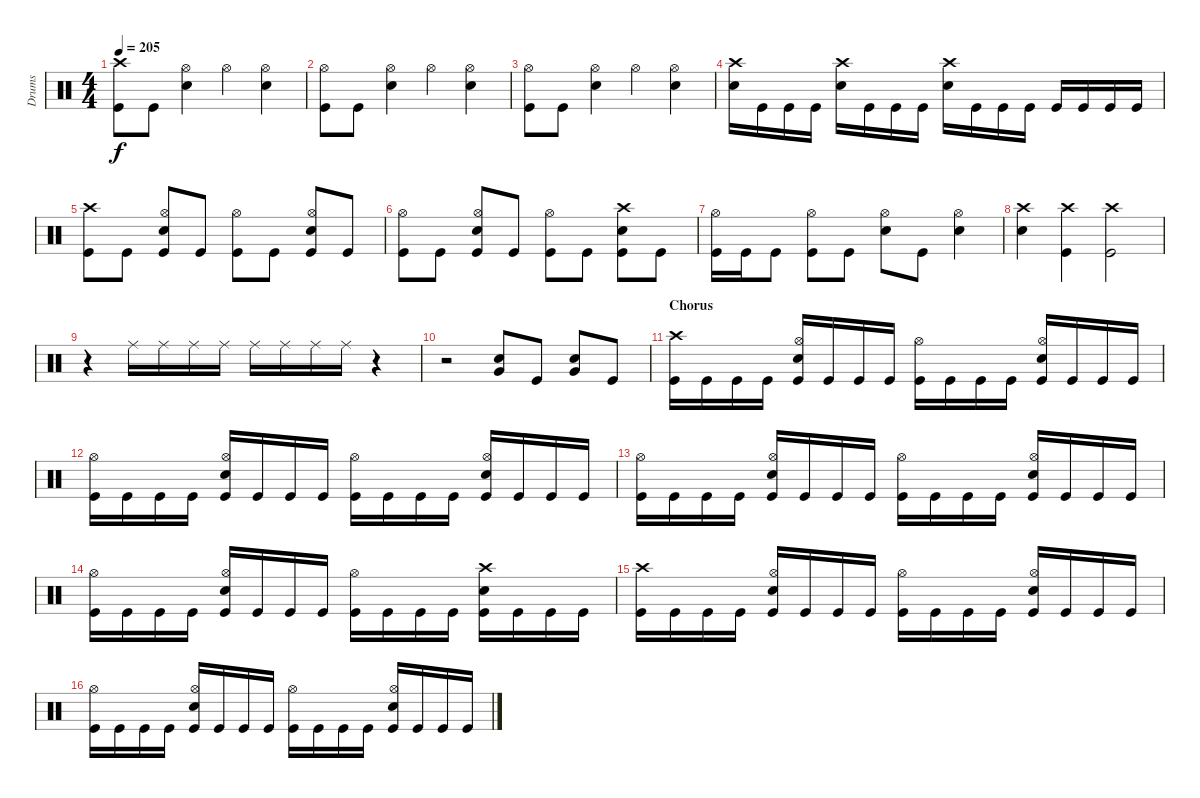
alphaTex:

\track ("Drums" "Drums") {instrument percussion}
\staff {score}
\articulation defaults
\ts (4 4)
\tempo 205
\clef neutral
\ks c
("Crash high (hit)" "Kick (hit)").8{dy f} "Kick (hit)".8 ("Hi-Hat (open)" "Snare (hit) 2").4 "Hi-Hat (open)".4 ("Hi-Hat (open)" "Snare (hit) 2").4 |
("Hi-Hat (open)" "Kick (hit)").8 "Kick (hit)".8 ("Hi-Hat (open)" "Snare (hit) 2").4 "Hi-Hat (open)".4 ("Hi-Hat (open)" "Snare (hit) 2").4 |
("Hi-Hat (open)" "Kick (hit)").8 "Kick (hit)".8 ("Hi-Hat (open)" "Snare (hit) 2").4 "Hi-Hat (open)".4 ("Hi-Hat (open)" "Snare (hit) 2").4 |
("Crash high (hit)" "Snare (hit) 2").16 "Kick (hit)".16 "Kick (hit)".16 "Kick (hit)".16 ("Crash high (hit)" "Snare (hit) 2").16 "Kick (hit)".16 "Kick (hit)".16 "Kick (hit)".16 ("Crash high (hit)" "Snare (hit) 2").16 "Kick (hit)".16 "Kick (hit)".16 "Kick (hit)".16 "Kick (hit)".16 "Kick (hit)".16 "Kick (hit)".16 "Kick (hit)".16 |
("Crash high (hit)" "Kick (hit)").8 "Kick (hit)".8 ("Hi-Hat (open)" "Snare (hit) 2" "Kick (hit)").8 "Kick (hit)".8 ("Hi-Hat (open)" "Kick (hit)").8 "Kick (hit)".8 ("Hi-Hat (open)" "Snare (hit) 2" "Kick (hit)").8 "Kick (hit)".8 |
("Hi-Hat (open)" "Kick (hit)").8 "Kick (hit)".8 ("Hi-Hat (open)" "Snare (hit) 2" "Kick (hit)").8 "Kick (hit)".8 ("Hi-Hat (open)" "Kick (hit)").8 "Kick (hit)".8 ("Crash high (hit)" "Snare (hit) 2" "Kick (hit)").8 "Kick (hit)".8 |
("Hi-Hat (open)" "Kick (hit)").16 "Kick (hit)".16 "Kick (hit)".8 ("Hi-Hat (open)" "Kick (hit)").8 "Kick (hit)".8 ("Hi-Hat (open)" "Snare (hit) 2").8 "Kick (hit)".8 ("Hi-Hat (open)" "Snare (hit) 2").4 |
("Crash high (hit)" "Snare (hit) 2").4 ("Crash high (hit)" "Kick (hit)").4 ("Crash high (hit)" "Kick (hit)").2 |
r.4 "Ride (middle)".16 "Ride (middle)".16 "Ride (middle)".16 "Ride (middle)".16 "Ride (middle)".16 "Ride (middle)".16 "Ride (middle)".16 "Ride (middle)".16 r.4 |
r.2 ("Snare (hit) 2" "Very Low Tom (hit)").8 "Kick (hit)".8 ("Snare (hit) 2" "Very Low Tom (hit)").8 "Kick (hit)".8 |
\section ("" "Chorus")
("Crash high (hit)" "Kick (hit)").16 "Kick (hit)".16 "Kick (hit)".16 "Kick (hit)".16 ("Hi-Hat (open)" "Snare (hit) 2" "Kick (hit)").16 "Kick (hit)".16 "Kick (hit)".16 "Kick (hit)".16 ("Hi-Hat (open)" "Kick (hit)").16 "Kick (hit)".16 "Kick (hit)".16 "Kick (hit)".16 ("Hi-Hat (open)" "Snare (hit) 2" "Kick (hit)").16 "Kick (hit)".16 "Kick (hit)".16 "Kick (hit)".16 |
("Hi-Hat (open)" "Kick (hit)").16 "Kick (hit)".16 "Kick (hit)".16 "Kick (hit)".16 ("Hi-Hat (open)" "Snare (hit) 2" "Kick (hit)").16 "Kick (hit)".16 "Kick (hit)".16 "Kick (hit)".16 ("Hi-Hat (open)" "Kick (hit)").16 "Kick (hit)".16 "Kick (hit)".16 "Kick (hit)".16 ("Hi-Hat (open)" "Snare (hit) 2" "Kick (hit)").16 "Kick (hit)".16 "Kick (hit)".16 "Kick (hit)".16 |
("Hi-Hat (open)" "Kick (hit)").16 "Kick (hit)".16 "Kick (hit)".16 "Kick (hit)".16 ("Hi-Hat (open)" "Snare (hit) 2" "Kick (hit)").16 "Kick (hit)".16 "Kick (hit)".16 "Kick (hit)".16 ("Hi-Hat (open)" "Kick (hit)").16 "Kick (hit)".16 "Kick (hit)".16 "Kick (hit)".16 ("Hi-Hat (open)" "Snare (hit) 2" "Kick (hit)").16 "Kick (hit)".16 "Kick (hit)".16 "Kick (hit)".16 |
("Hi-Hat (open)" "Kick (hit)").16 "Kick (hit)".16 "Kick (hit)".16 "Kick (hit)".16 ("Hi-Hat (open)" "Snare (hit) 2" "Kick (hit)").16 "Kick (hit)".16 "Kick (hit)".16 "Kick (hit)".16 ("Hi-Hat (open)" "Kick (hit)").16 "Kick (hit)".16 "Kick (hit)".16 "Kick (hit)".16 ("Crash high (hit)" "Snare (hit) 2" "Kick (hit)").16 "Kick (hit)".16 "Kick (hit)".16 "Kick (hit)".16 |
("Crash high (hit)" "Kick (hit)").16 "Kick (hit)".16 "Kick (hit)".16 "Kick (hit)".16 ("Hi-Hat (open)" "Snare (hit) 2" "Kick (hit)").16 "Kick (hit)".16 "Kick (hit)".16 "Kick (hit)".16 ("Hi-Hat (open)" "Kick (hit)").16 "Kick (hit)".16 "Kick (hit)".16 "Kick (hit)".16 ("Hi-Hat (open)" "Snare (hit) 2" "Kick (hit)").16 "Kick (hit)".16 "Kick (hit)".16 "Kick (hit)".16 |
("Hi-Hat (open)" "Kick (hit)").16 "Kick (hit)".16 "Kick (hit)".16 "Kick (hit)".16 ("Hi-Hat (open)" "Snare (hit) 2" "Kick (hit)").16 "Kick (hit)".16 "Kick (hit)".16 "Kick (hit)".16 ("Hi-Hat (open)" "Kick (hit)").16 "Kick (hit)".16 "Kick (hit)".16 "Kick (hit)".16 ("Hi-Hat (open)" "Snare (hit) 2" "Kick (hit)").16 "Kick (hit)".16 "Kick (hit)".16 "Kick (hit)".16
